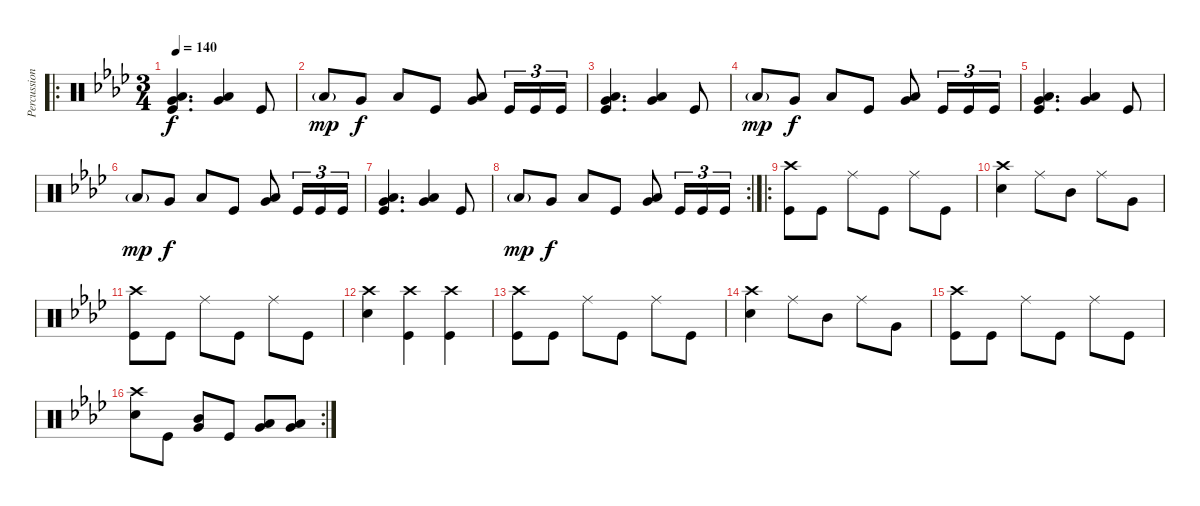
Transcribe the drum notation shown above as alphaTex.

\track ("Percussion" "Percussion") {instrument percussion}
\staff {score}
\articulation defaults
\ro
\ts (3 4)
\tempo 140
\clef neutral
\ks ab
("Low Floor Tom (hit)" "Very Low Tom (hit)" "Kick (hit)").4{d dy f} ("Low Floor Tom (hit)" "Very Low Tom (hit)").4 "Kick (hit)".8 |
"Low Floor Tom (hit)"{g}.8{dy mp} "Very Low Tom (hit)".8{dy f} "Low Floor Tom (hit)".8 "Kick (hit)".8 ("Very Low Tom (hit)" "Low Floor Tom (hit)").8 "Kick (hit)".16{tu (3 2)} "Kick (hit)".16{tu (3 2)} "Kick (hit)".16{tu (3 2)} |
("Low Floor Tom (hit)" "Very Low Tom (hit)" "Kick (hit)").4{d} ("Low Floor Tom (hit)" "Very Low Tom (hit)").4 "Kick (hit)".8 |
"Low Floor Tom (hit)"{g}.8{dy mp} "Very Low Tom (hit)".8{dy f} "Low Floor Tom (hit)".8 "Kick (hit)".8 ("Very Low Tom (hit)" "Low Floor Tom (hit)").8 "Kick (hit)".16{tu (3 2)} "Kick (hit)".16{tu (3 2)} "Kick (hit)".16{tu (3 2)} |
("Low Floor Tom (hit)" "Very Low Tom (hit)" "Kick (hit)").4{d} ("Low Floor Tom (hit)" "Very Low Tom (hit)").4 "Kick (hit)".8 |
"Low Floor Tom (hit)"{g}.8{dy mp} "Very Low Tom (hit)".8{dy f} "Low Floor Tom (hit)".8 "Kick (hit)".8 ("Very Low Tom (hit)" "Low Floor Tom (hit)").8 "Kick (hit)".16{tu (3 2)} "Kick (hit)".16{tu (3 2)} "Kick (hit)".16{tu (3 2)} |
("Low Floor Tom (hit)" "Very Low Tom (hit)" "Kick (hit)").4{d} ("Low Floor Tom (hit)" "Very Low Tom (hit)").4 "Kick (hit)".8 |
\rc 2 "Low Floor Tom (hit)"{g}.8{dy mp} "Very Low Tom (hit)".8{dy f} "Low Floor Tom (hit)".8 "Kick (hit)".8
("Very Low Tom (hit)" "Low Floor Tom (hit)").8 "Kick (hit)".16{tu (3 2)} "Kick (hit)".16{tu (3 2)} "Kick (hit)".16{tu (3 2)} |
\ro
("Crash high (hit)" "Kick (hit)").8 "Kick (hit)".8 "Ride (middle)".8 "Kick (hit)".8 "Ride (middle)".8 "Kick (hit)".8 |
("Crash high (hit)" "Snare (hit) 2").4 "Ride (middle)".8 "Mid Tom (hit)".8 "Ride (middle)".8 "Very Low Tom (hit)".8 |
("Crash high (hit)" "Kick (hit)").8 "Kick (hit)".8 "Ride (middle)".8 "Kick (hit)".8 "Ride (middle)".8 "Kick (hit)".8 |
("Crash high (hit)" "Snare (hit) 2").4 ("Crash high (hit)" "Kick (hit)").4 ("Crash high (hit)" "Kick (hit)").4 |
("Crash high (hit)" "Kick (hit)").8 "Kick (hit)".8 "Ride (middle)".8 "Kick (hit)".8 "Ride (middle)".8 "Kick (hit)".8 |
("Crash high (hit)" "Snare (hit) 2").4 "Ride (middle)".8 "Mid Tom (hit)".8 "Ride (middle)".8 "Very Low Tom (hit)".8 |
("Crash high (hit)" "Kick (hit)").8 "Kick (hit)".8 "Ride (middle)".8 "Kick (hit)".8 "Ride (middle)".8 "Kick (hit)".8 |
\rc 2
("Crash high (hit)" "Snare (hit) 2").8 "Kick (hit)".8 ("Mid Tom (hit)" "Very Low Tom (hit)").8 "Kick (hit)".8 ("Low Floor Tom (hit)" "Very Low Tom (hit)").8 ("Low Floor Tom (hit)" "Very Low Tom (hit)").8
